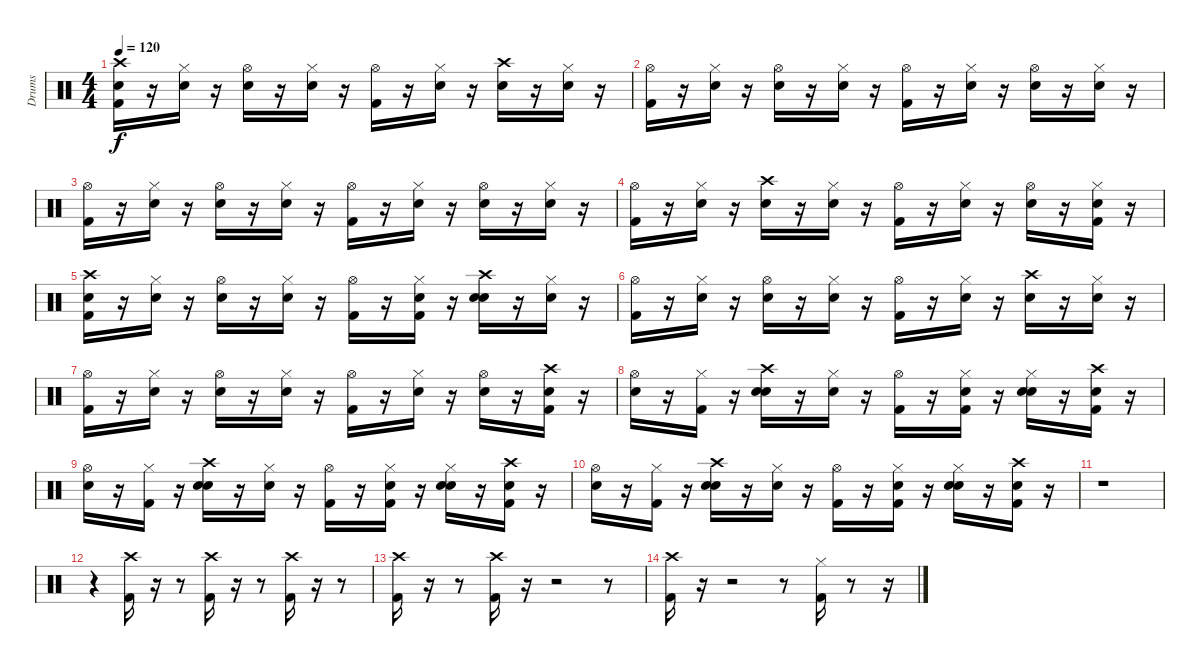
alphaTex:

\track ("Drums" "Drums") {instrument percussion}
\staff {score}
\articulation defaults
\ts (4 4)
\tempo 120
\clef neutral
\ks c
("Snare (hit)" "Kick (hit) 2" "Crash high (hit)").16{dy f} r.16 ("Snare (hit)" "Hi-Hat (closed)").16 r.16 ("Electric Snare (hit)" "Hi-Hat (open)").16 r.16 ("Snare (hit)" "Hi-Hat (closed)").16 r.16 ("Kick (hit) 2" "Hi-Hat (open)").16 r.16 ("Snare (hit)" "Hi-Hat (closed)").16 r.16 ("Electric Snare (hit)" "Crash high (hit)").16 r.16 ("Snare (hit)" "Hi-Hat (closed)").16 r.16 |
("Kick (hit) 2" "Hi-Hat (open)").16 r.16 ("Snare (hit)" "Hi-Hat (closed)").16 r.16 ("Electric Snare (hit)" "Hi-Hat (open)").16 r.16 ("Snare (hit)" "Hi-Hat (closed)").16 r.16 ("Kick (hit) 2" "Hi-Hat (open)").16 r.16 ("Snare (hit)" "Hi-Hat (closed)").16 r.16 ("Electric Snare (hit)" "Hi-Hat (open)").16 r.16 ("Snare (hit)" "Hi-Hat (closed)").16 r.16 |
("Kick (hit) 2" "Hi-Hat (open)").16 r.16 ("Snare (hit)" "Hi-Hat (closed)").16 r.16 ("Electric Snare (hit)" "Hi-Hat (open)").16 r.16 ("Snare (hit)" "Hi-Hat (closed)").16 r.16 ("Kick (hit) 2" "Hi-Hat (open)").16 r.16 ("Snare (hit)" "Hi-Hat (closed)").16 r.16 ("Electric Snare (hit)" "Hi-Hat (open)").16 r.16 ("Snare (hit)" "Hi-Hat (closed)").16 r.16 |
("Kick (hit) 2" "Hi-Hat (open)").16 r.16 ("Snare (hit)" "Hi-Hat (closed)").16 r.16 ("Electric Snare (hit)" "Crash high (hit)").16 r.16 ("Snare (hit)" "Hi-Hat (closed)").16 r.16 ("Kick (hit) 2" "Hi-Hat (open)").16 r.16 ("Snare (hit)" "Hi-Hat (closed)").16 r.16 ("Electric Snare (hit)" "Hi-Hat (open)").16 r.16 ("Snare (hit)" "Kick (hit) 2" "Hi-Hat (closed)").16 r.16 |
("Snare (hit)" "Kick (hit) 2" "Crash high (hit)").16 r.16 ("Snare (hit)" "Hi-Hat (closed)").16 r.16 ("Electric Snare (hit)" "Hi-Hat (open)").16 r.16 ("Snare (hit)" "Hi-Hat (closed)").16 r.16 ("Kick (hit) 2" "Hi-Hat (open)").16 r.16 ("Snare (hit)" "Kick (hit) 2" "Hi-Hat (closed)").16 r.16 ("Snare (hit)" "Electric Snare (hit)" "Crash high (hit)").16 r.16 ("Snare (hit)" "Hi-Hat (closed)").16 r.16 |
("Kick (hit) 2" "Hi-Hat (open)").16 r.16 ("Snare (hit)" "Hi-Hat (closed)").16 r.16 ("Electric Snare (hit)" "Hi-Hat (open)").16 r.16 ("Snare (hit)" "Hi-Hat (closed)").16 r.16 ("Kick (hit) 2" "Hi-Hat (open)").16 r.16 ("Snare (hit)" "Hi-Hat (closed)").16 r.16 ("Electric Snare (hit)" "Crash high (hit)").16 r.16 ("Snare (hit)" "Hi-Hat (closed)").16 r.16 |
("Kick (hit) 2" "Hi-Hat (open)").16 r.16 ("Snare (hit)" "Hi-Hat (closed)").16 r.16 ("Electric Snare (hit)" "Hi-Hat (open)").16 r.16 ("Snare (hit)" "Hi-Hat (closed)").16 r.16 ("Kick (hit) 2" "Hi-Hat (open)").16 r.16 ("Snare (hit)" "Hi-Hat (closed)").16 r.16 ("Electric Snare (hit)" "Hi-Hat (open)").16 r.16 ("Snare (hit)" "Kick (hit) 2" "Crash high (hit)").16 r.16 |
("Snare (hit)" "Hi-Hat (open)").16 r.16 ("Kick (hit) 2" "Hi-Hat (closed)").16 r.16 ("Snare (hit)" "Electric Snare (hit)" "Crash high (hit)").16 r.16 ("Snare (hit)" "Hi-Hat (closed)").16 r.16 ("Kick (hit) 2" "Hi-Hat (open)").16 r.16 ("Snare (hit)" "Kick (hit) 2" "Hi-Hat (closed)").16 r.16 ("Snare (hit)" "Electric Snare (hit)" "Hi-Hat (closed)").16 r.16 ("Snare (hit)" "Kick (hit) 2" "Crash high (hit)").16 r.16 |
("Snare (hit)" "Hi-Hat (open)").16 r.16 ("Kick (hit) 2" "Hi-Hat (closed)").16 r.16 ("Snare (hit)" "Electric Snare (hit)" "Crash high (hit)").16 r.16 ("Snare (hit)" "Hi-Hat (closed)").16 r.16 ("Kick (hit) 2" "Hi-Hat (open)").16 r.16 ("Snare (hit)" "Kick (hit) 2" "Hi-Hat (closed)").16 r.16 ("Snare (hit)" "Electric Snare (hit)" "Hi-Hat (closed)").16 r.16 ("Snare (hit)" "Kick (hit) 2" "Crash high (hit)").16 r.16 |
("Snare (hit)" "Hi-Hat (open)").16 r.16 ("Kick (hit) 2" "Hi-Hat (closed)").16 r.16 ("Snare (hit)" "Electric Snare (hit)" "Crash high (hit)").16 r.16 ("Snare (hit)" "Hi-Hat (closed)").16 r.16 ("Kick (hit) 2" "Hi-Hat (open)").16 r.16 ("Snare (hit)" "Kick (hit) 2" "Hi-Hat (closed)").16 r.16 ("Snare (hit)" "Electric Snare (hit)" "Hi-Hat (closed)").16 r.16 ("Snare (hit)" "Kick (hit) 2" "Crash high (hit)").16 r.16 |
r.1 |
r.4 ("Kick (hit) 2" "Crash high (hit)").16 r.16 r.8 ("Kick (hit) 2" "Crash high (hit)").16 r.16 r.8 ("Kick (hit) 2" "Crash high (hit)").16 r.16 r.8 |
("Kick (hit) 2" "Crash high (hit)").16 r.16 r.8 ("Kick (hit) 2" "Crash high (hit)").16 r.16 r.2 r.8 |
("Kick (hit) 2" "Crash high (hit)").16 r.16 r.2 r.8 ("Kick (hit) 2" "Hi-Hat (closed)").16 r.8 r.16
